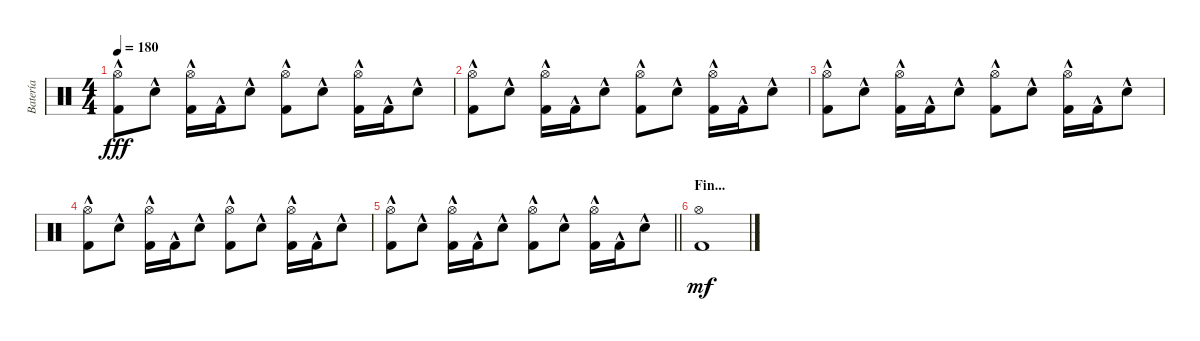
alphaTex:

\track ("Batería" "Batería") {instrument percussion}
\staff {score}
\articulation defaults
\ts (4 4)
\tempo 180
\clef neutral
\ks c
("Hi-Hat (open)" "Kick (hit) 2"{hac}).8{dy fff} "Snare (hit) 2"{hac}.8 ("Hi-Hat (open)" "Kick (hit) 2"{hac}).16 "Kick (hit) 2"{hac}.16 "Snare (hit) 2"{hac}.8 ("Hi-Hat (open)" "Kick (hit) 2"{hac}).8 "Snare (hit) 2"{hac}.8 ("Hi-Hat (open)" "Kick (hit) 2"{hac}).16 "Kick (hit) 2"{hac}.16 "Snare (hit) 2"{hac}.8 |
("Hi-Hat (open)" "Kick (hit) 2"{hac}).8 "Snare (hit) 2"{hac}.8 ("Hi-Hat (open)" "Kick (hit) 2"{hac}).16 "Kick (hit) 2"{hac}.16 "Snare (hit) 2"{hac}.8 ("Hi-Hat (open)" "Kick (hit) 2"{hac}).8 "Snare (hit) 2"{hac}.8 ("Hi-Hat (open)" "Kick (hit) 2"{hac}).16 "Kick (hit) 2"{hac}.16 "Snare (hit) 2"{hac}.8 |
("Hi-Hat (open)" "Kick (hit) 2"{hac}).8 "Snare (hit) 2"{hac}.8 ("Hi-Hat (open)" "Kick (hit) 2"{hac}).16 "Kick (hit) 2"{hac}.16 "Snare (hit) 2"{hac}.8 ("Hi-Hat (open)" "Kick (hit) 2"{hac}).8 "Snare (hit) 2"{hac}.8 ("Hi-Hat (open)" "Kick (hit) 2"{hac}).16 "Kick (hit) 2"{hac}.16 "Snare (hit) 2"{hac}.8 |
("Hi-Hat (open)" "Kick (hit) 2"{hac}).8 "Snare (hit) 2"{hac}.8 ("Hi-Hat (open)" "Kick (hit) 2"{hac}).16 "Kick (hit) 2"{hac}.16 "Snare (hit) 2"{hac}.8 ("Hi-Hat (open)" "Kick (hit) 2"{hac}).8 "Snare (hit) 2"{hac}.8 ("Hi-Hat (open)" "Kick (hit) 2"{hac}).16 "Kick (hit) 2"{hac}.16 "Snare (hit) 2"{hac}.8 |
\barLineRight lightlight
("Hi-Hat (open)" "Kick (hit) 2"{hac}).8 "Snare (hit) 2"{hac}.8 ("Hi-Hat (open)" "Kick (hit) 2"{hac}).16 "Kick (hit) 2"{hac}.16 "Snare (hit) 2"{hac}.8 ("Hi-Hat (open)" "Kick (hit) 2"{hac}).8 "Snare (hit) 2"{hac}.8 ("Hi-Hat (open)" "Kick (hit) 2"{hac}).16 "Kick (hit) 2"{hac}.16 "Snare (hit) 2"{hac}.8 |
\section ("" "Fin...")
("Hi-Hat (open)" "Kick (hit) 2").1{dy mf}
